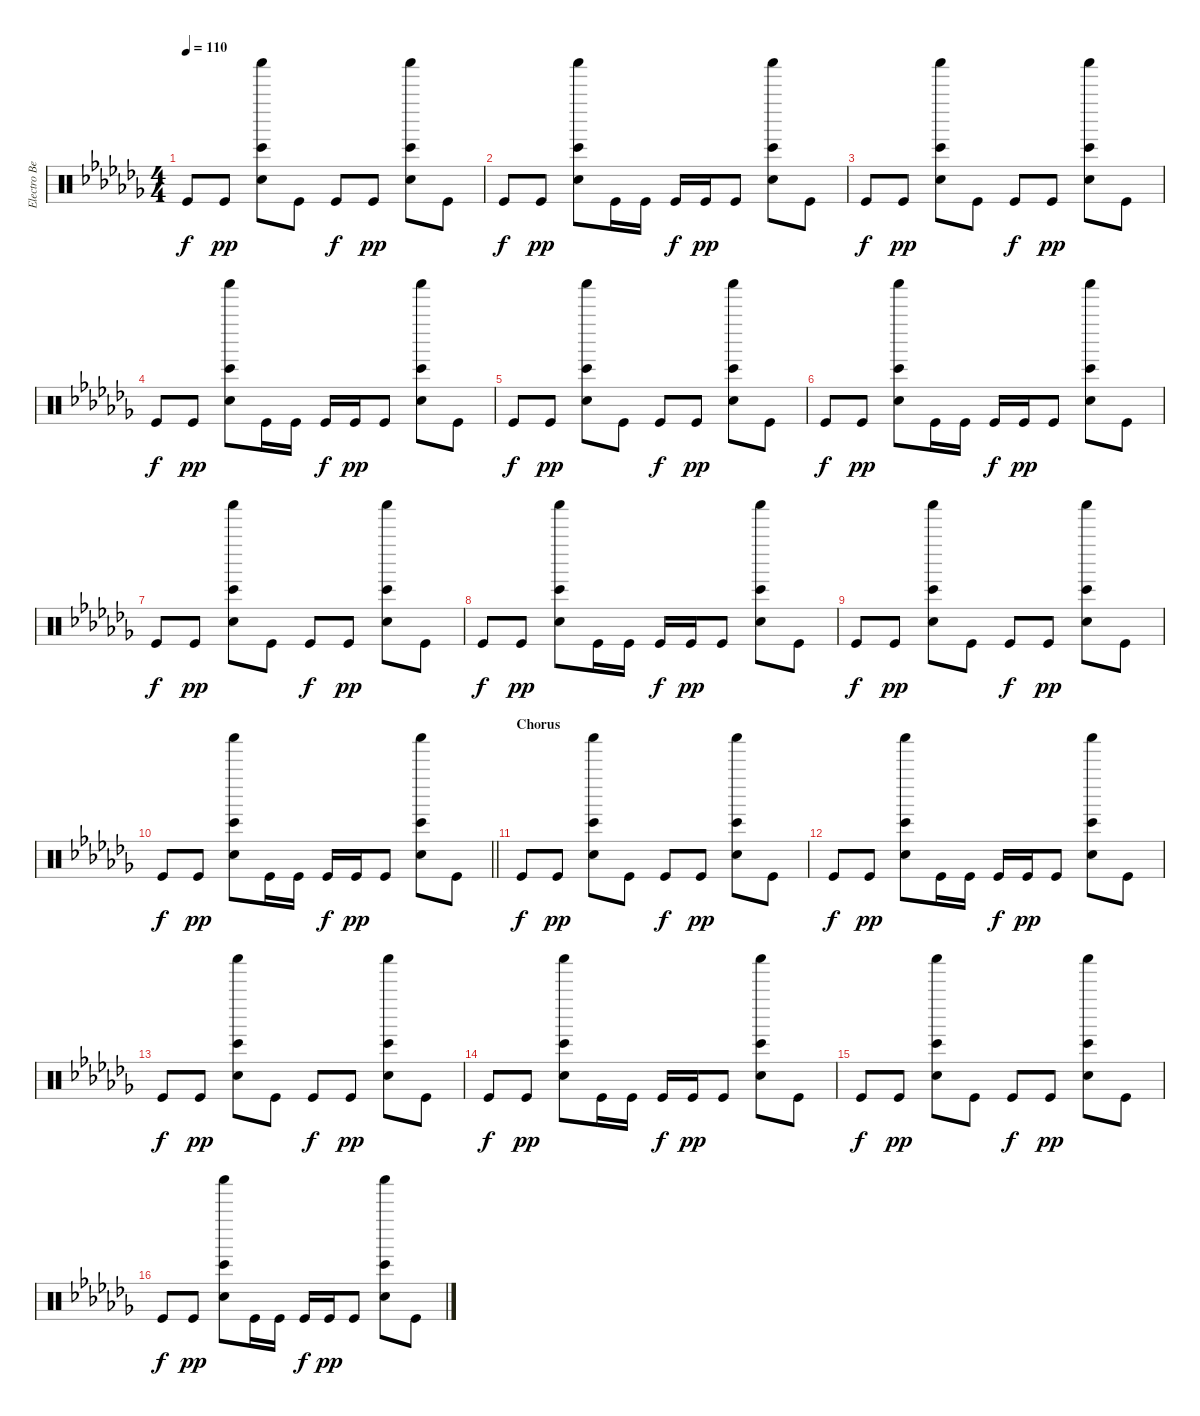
\track ("Electro Beat - Joe Hahn" "Electro Be") {instrument percussion}
\staff {score}
\articulation defaults
\ts (4 4)
\tempo 110
\clef neutral
\ks abminor "Kick (hit)".8{dy f} "Kick (hit)".8{dy pp}
("Snare (hit) 2" "Bongo High (hit)" "Shaker (hit)").8 "Kick (hit)".8 "Kick (hit)".8{dy f} "Kick (hit)".8{dy pp} ("Snare (hit) 2" "Bongo High (hit)" "Shaker (hit)").8 "Kick (hit)".8 |
"Kick (hit)".8{dy f} "Kick (hit)".8{dy pp} ("Snare (hit) 2" "Bongo High (hit)" "Shaker (hit)").8 "Kick (hit)".16 "Kick (hit)".16 "Kick (hit)".16{dy f} "Kick (hit)".16{dy pp} "Kick (hit)".8 ("Snare (hit) 2" "Bongo High (hit)" "Shaker (hit)").8 "Kick (hit)".8 |
"Kick (hit)".8{dy f} "Kick (hit)".8{dy pp} ("Snare (hit) 2" "Bongo High (hit)" "Shaker (hit)").8 "Kick (hit)".8 "Kick (hit)".8{dy f} "Kick (hit)".8{dy pp} ("Snare (hit) 2" "Bongo High (hit)" "Shaker (hit)").8 "Kick (hit)".8 |
"Kick (hit)".8{dy f} "Kick (hit)".8{dy pp} ("Snare (hit) 2" "Bongo High (hit)" "Shaker (hit)").8 "Kick (hit)".16 "Kick (hit)".16 "Kick (hit)".16{dy f} "Kick (hit)".16{dy pp} "Kick (hit)".8 ("Snare (hit) 2" "Bongo High (hit)" "Shaker (hit)").8 "Kick (hit)".8 |
"Kick (hit)".8{dy f} "Kick (hit)".8{dy pp} ("Snare (hit) 2" "Bongo High (hit)" "Shaker (hit)").8 "Kick (hit)".8 "Kick (hit)".8{dy f} "Kick (hit)".8{dy pp} ("Snare (hit) 2" "Bongo High (hit)" "Shaker (hit)").8 "Kick (hit)".8 |
"Kick (hit)".8{dy f} "Kick (hit)".8{dy pp} ("Snare (hit) 2" "Bongo High (hit)" "Shaker (hit)").8 "Kick (hit)".16 "Kick (hit)".16 "Kick (hit)".16{dy f} "Kick (hit)".16{dy pp} "Kick (hit)".8 ("Snare (hit) 2" "Bongo High (hit)" "Shaker (hit)").8 "Kick (hit)".8 |
"Kick (hit)".8{dy f} "Kick (hit)".8{dy pp} ("Snare (hit) 2" "Bongo High (hit)" "Shaker (hit)").8 "Kick (hit)".8 "Kick (hit)".8{dy f} "Kick (hit)".8{dy pp} ("Snare (hit) 2" "Bongo High (hit)" "Shaker (hit)").8 "Kick (hit)".8 |
"Kick (hit)".8{dy f} "Kick (hit)".8{dy pp} ("Snare (hit) 2" "Bongo High (hit)" "Shaker (hit)").8 "Kick (hit)".16 "Kick (hit)".16 "Kick (hit)".16{dy f} "Kick (hit)".16{dy pp} "Kick (hit)".8 ("Snare (hit) 2" "Bongo High (hit)" "Shaker (hit)").8 "Kick (hit)".8 |
"Kick (hit)".8{dy f} "Kick (hit)".8{dy pp} ("Snare (hit) 2" "Bongo High (hit)" "Shaker (hit)").8 "Kick (hit)".8 "Kick (hit)".8{dy f} "Kick (hit)".8{dy pp} ("Snare (hit) 2" "Bongo High (hit)" "Shaker (hit)").8 "Kick (hit)".8 |
\barLineRight lightlight "Kick (hit)".8{dy f} "Kick (hit)".8{dy pp}
("Snare (hit) 2" "Bongo High (hit)" "Shaker (hit)").8 "Kick (hit)".16 "Kick (hit)".16 "Kick (hit)".16{dy f} "Kick (hit)".16{dy pp} "Kick (hit)".8 ("Snare (hit) 2" "Bongo High (hit)" "Shaker (hit)").8 "Kick (hit)".8 |
\section ("" "Chorus")
"Kick (hit)".8{dy f} "Kick (hit)".8{dy pp} ("Snare (hit) 2" "Bongo High (hit)" "Shaker (hit)").8 "Kick (hit)".8 "Kick (hit)".8{dy f} "Kick (hit)".8{dy pp} ("Snare (hit) 2" "Bongo High (hit)" "Shaker (hit)").8 "Kick (hit)".8 |
"Kick (hit)".8{dy f} "Kick (hit)".8{dy pp} ("Snare (hit) 2" "Bongo High (hit)" "Shaker (hit)").8 "Kick (hit)".16 "Kick (hit)".16 "Kick (hit)".16{dy f} "Kick (hit)".16{dy pp} "Kick (hit)".8 ("Snare (hit) 2" "Bongo High (hit)" "Shaker (hit)").8 "Kick (hit)".8 |
"Kick (hit)".8{dy f} "Kick (hit)".8{dy pp} ("Snare (hit) 2" "Bongo High (hit)" "Shaker (hit)").8 "Kick (hit)".8 "Kick (hit)".8{dy f} "Kick (hit)".8{dy pp} ("Snare (hit) 2" "Bongo High (hit)" "Shaker (hit)").8 "Kick (hit)".8 |
"Kick (hit)".8{dy f} "Kick (hit)".8{dy pp} ("Snare (hit) 2" "Bongo High (hit)" "Shaker (hit)").8 "Kick (hit)".16 "Kick (hit)".16 "Kick (hit)".16{dy f} "Kick (hit)".16{dy pp} "Kick (hit)".8 ("Snare (hit) 2" "Bongo High (hit)" "Shaker (hit)").8 "Kick (hit)".8 |
"Kick (hit)".8{dy f} "Kick (hit)".8{dy pp} ("Snare (hit) 2" "Bongo High (hit)" "Shaker (hit)").8 "Kick (hit)".8 "Kick (hit)".8{dy f} "Kick (hit)".8{dy pp} ("Snare (hit) 2" "Bongo High (hit)" "Shaker (hit)").8 "Kick (hit)".8 |
"Kick (hit)".8{dy f} "Kick (hit)".8{dy pp} ("Snare (hit) 2" "Bongo High (hit)" "Shaker (hit)").8 "Kick (hit)".16 "Kick (hit)".16 "Kick (hit)".16{dy f} "Kick (hit)".16{dy pp} "Kick (hit)".8 ("Snare (hit) 2" "Bongo High (hit)" "Shaker (hit)").8 "Kick (hit)".8
